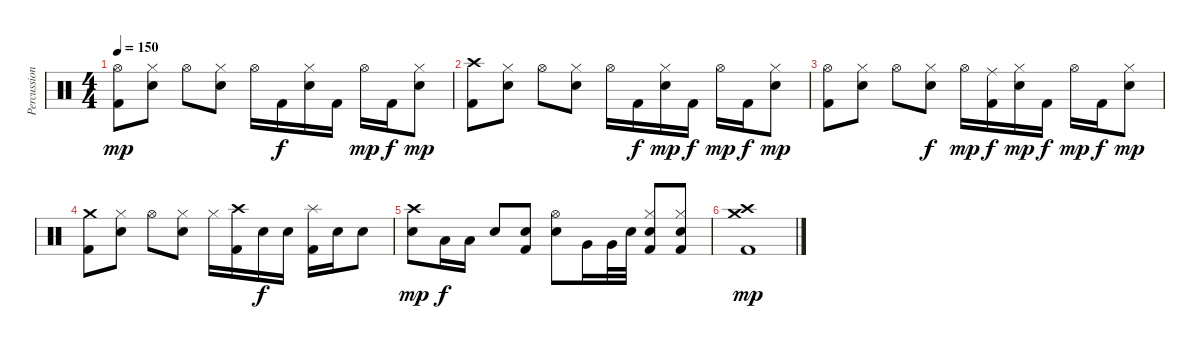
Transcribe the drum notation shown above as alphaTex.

\track ("Percussion" "Percussion") {instrument percussion}
\staff {score}
\articulation defaults
\ts (4 4)
\tempo 150
\clef neutral
\ks c
("Hi-Hat (open)" "Kick (hit) 2").8{dy mp} ("Hi-Hat (closed)" "Electric Snare (hit)").8 "Hi-Hat (open)".8 ("Hi-Hat (closed)" "Electric Snare (hit)").8 "Hi-Hat (open)".16 "Kick (hit) 2".16{dy f} ("Hi-Hat (closed)" "Electric Snare (hit)").16 "Kick (hit) 2".16 "Hi-Hat (open)".16{dy mp} "Kick (hit) 2".16{dy f} ("Hi-Hat (closed)" "Electric Snare (hit)").8{dy mp} |
("Crash high (hit)" "Kick (hit) 2").8 ("Hi-Hat (closed)" "Electric Snare (hit)").8 "Hi-Hat (open)".8 ("Hi-Hat (closed)" "Electric Snare (hit)").8 "Hi-Hat (open)".16 "Kick (hit) 2".16{dy f} ("Hi-Hat (closed)" "Electric Snare (hit)").16{dy mp} "Kick (hit) 2".16{dy f} "Hi-Hat (open)".16{dy mp} "Kick (hit) 2".16{dy f} ("Hi-Hat (closed)" "Electric Snare (hit)").8{dy mp} |
("Hi-Hat (open)" "Kick (hit) 2").8 ("Hi-Hat (closed)" "Electric Snare (hit)").8 "Hi-Hat (open)".8 ("Hi-Hat (closed)" "Electric Snare (hit)").8{dy f} "Hi-Hat (open)".16{dy mp} ("Ride (middle)" "Kick (hit) 2").16{dy f} ("Hi-Hat (closed)" "Electric Snare (hit)").16{dy mp} "Kick (hit) 2".16{dy f} "Hi-Hat (open)".16{dy mp} "Kick (hit) 2".16{dy f} ("Hi-Hat (closed)" "Electric Snare (hit)").8{dy mp} |
("Crash medium (hit)" "Kick (hit) 2").8 ("Hi-Hat (closed)" "Electric Snare (hit)").8 "Hi-Hat (open)".8 ("Hi-Hat (closed)" "Electric Snare (hit)").8 "Hi-Hat (closed)".16 ("Crash high (hit)" "Kick (hit) 2").16 "Electric Snare (hit)".16{dy f} "Electric Snare (hit)".16 ("Splash (hit)" "Kick (hit) 2").16 "Electric Snare (hit)".16 "Electric Snare (hit)".8 |
("Crash high (hit)" "Electric Snare (hit)").8{dy mp} "Low Tom (hit)".16{dy f} "Low Tom (hit)".16 "Electric Snare (hit)".8 ("Electric Snare (hit)" "Kick (hit) 2").8 ("Hi-Hat (open)" "Electric Snare (hit)").8 "Very Low Tom (hit)".16 "Very Low Tom (hit)".32 "Electric Snare (hit)".32 ("Hi-Hat (closed)" "Electric Snare (hit)" "Kick (hit) 2").8 ("Hi-Hat (closed)" "Electric Snare (hit)" "Kick (hit) 2").8 |
("Crash high (hit)" "Crash medium (hit)" "Kick (hit) 2").1{dy mp}
